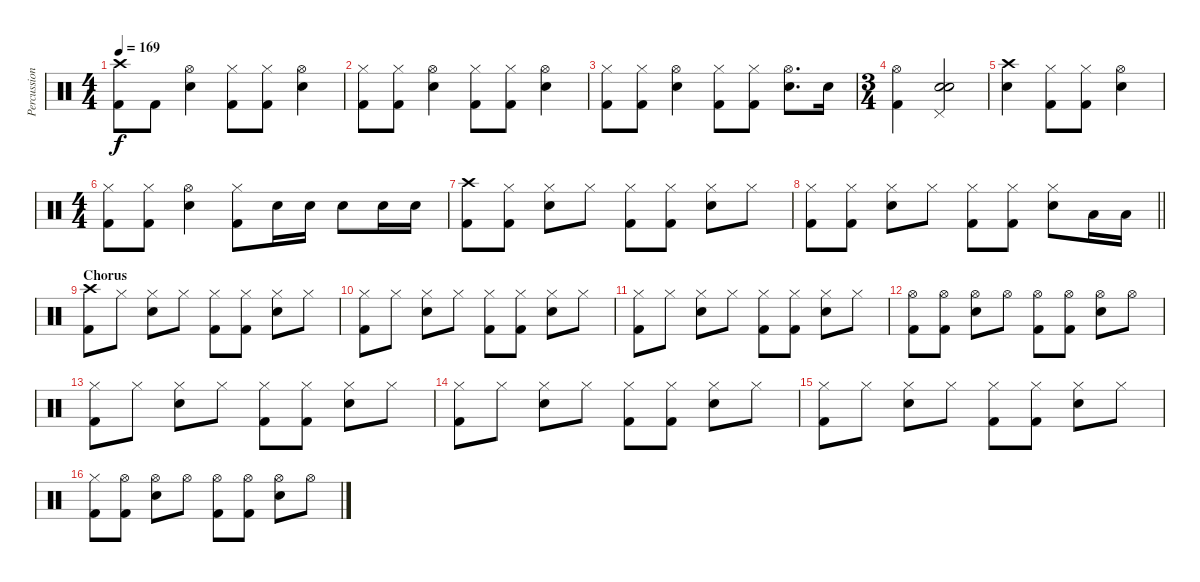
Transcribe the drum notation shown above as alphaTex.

\track ("Percussion" "Percussion") {instrument percussion}
\staff {score}
\articulation defaults
\ts (4 4)
\tempo 169
\clef neutral
\ks c
("Crash high (hit)" "Kick (hit) 2").8{dy f} "Kick (hit) 2".8 ("Hi-Hat (open)" "Electric Snare (hit)").4 ("Hi-Hat (closed)" "Kick (hit) 2").8 ("Hi-Hat (closed)" "Kick (hit) 2").8 ("Hi-Hat (open)" "Electric Snare (hit)").4 |
("Hi-Hat (closed)" "Kick (hit) 2").8 ("Hi-Hat (closed)" "Kick (hit) 2").8 ("Hi-Hat (open)" "Electric Snare (hit)").4 ("Hi-Hat (closed)" "Kick (hit) 2").8 ("Hi-Hat (closed)" "Kick (hit) 2").8 ("Hi-Hat (open)" "Electric Snare (hit)").4 |
("Hi-Hat (closed)" "Kick (hit) 2").8 ("Hi-Hat (closed)" "Kick (hit) 2").8 ("Hi-Hat (open)" "Electric Snare (hit)").4 ("Hi-Hat (closed)" "Kick (hit) 2").8 ("Hi-Hat (closed)" "Kick (hit) 2").8 ("Hi-Hat (open)" "Electric Snare (hit)").8{d} "Electric Snare (hit)".16 |
\ts (3 4)
("Hi-Hat (open)" "Kick (hit) 2").4 ("Pedal Hi-Hat (hit)" "Electric Snare (hit)" "Electric Snare (hit)").2 |
("Crash high (hit)" "Electric Snare (hit)").4 ("Hi-Hat (closed)" "Kick (hit) 2").8 ("Hi-Hat (closed)" "Kick (hit) 2").8 ("Hi-Hat (open)" "Electric Snare (hit)").4 |
\ts (4 4)
("Hi-Hat (closed)" "Kick (hit) 2").8 ("Hi-Hat (closed)" "Kick (hit) 2").8 ("Hi-Hat (open)" "Electric Snare (hit)").4 ("Hi-Hat (closed)" "Kick (hit) 2").8 "Electric Snare (hit)".16 "Electric Snare (hit)".16 "Electric Snare (hit)".8 "Electric Snare (hit)".16 "Electric Snare (hit)".16 |
("Crash high (hit)" "Kick (hit) 2").8 ("Hi-Hat (closed)" "Kick (hit) 2").8 ("Hi-Hat (closed)" "Electric Snare (hit)").8 "Hi-Hat (closed)".8 ("Hi-Hat (closed)" "Kick (hit) 2").8 ("Hi-Hat (closed)" "Kick (hit) 2").8 ("Hi-Hat (closed)" "Electric Snare (hit)").8 "Hi-Hat (closed)".8 |
\barLineRight lightlight
("Hi-Hat (closed)" "Kick (hit) 2").8 ("Hi-Hat (closed)" "Kick (hit) 2").8 ("Hi-Hat (closed)" "Electric Snare (hit)").8 "Hi-Hat (closed)".8 ("Hi-Hat (closed)" "Kick (hit) 2").8 ("Hi-Hat (closed)" "Kick (hit) 2").8 ("Hi-Hat (closed)" "Electric Snare (hit)").8 "Low Floor Tom (hit)".16 "Low Floor Tom (hit)".16 |
\section ("" "Chorus")
("Crash high (hit)" "Kick (hit) 2").8 "Hi-Hat (closed)".8 ("Hi-Hat (closed)" "Electric Snare (hit)").8 "Hi-Hat (closed)".8 ("Hi-Hat (closed)" "Kick (hit) 2").8 ("Hi-Hat (closed)" "Kick (hit) 2").8 ("Hi-Hat (closed)" "Electric Snare (hit)").8 "Hi-Hat (closed)".8 |
("Hi-Hat (closed)" "Kick (hit) 2").8 "Hi-Hat (closed)".8 ("Hi-Hat (closed)" "Electric Snare (hit)").8 "Hi-Hat (closed)".8 ("Hi-Hat (closed)" "Kick (hit) 2").8 ("Hi-Hat (closed)" "Kick (hit) 2").8 ("Hi-Hat (closed)" "Electric Snare (hit)").8 "Hi-Hat (closed)".8 |
("Hi-Hat (closed)" "Kick (hit) 2").8 "Hi-Hat (closed)".8 ("Hi-Hat (closed)" "Electric Snare (hit)").8 "Hi-Hat (closed)".8 ("Hi-Hat (closed)" "Kick (hit) 2").8 ("Hi-Hat (closed)" "Kick (hit) 2").8 ("Hi-Hat (closed)" "Electric Snare (hit)").8 "Hi-Hat (closed)".8 |
("Hi-Hat (open)" "Kick (hit) 2").8 ("Hi-Hat (open)" "Kick (hit) 2").8 ("Hi-Hat (open)" "Electric Snare (hit)").8 "Hi-Hat (open)".8 ("Hi-Hat (open)" "Kick (hit) 2").8 ("Hi-Hat (open)" "Kick (hit) 2").8 ("Hi-Hat (open)" "Electric Snare (hit)").8 "Hi-Hat (open)".8 |
("Hi-Hat (closed)" "Kick (hit) 2").8 "Hi-Hat (closed)".8 ("Hi-Hat (closed)" "Electric Snare (hit)").8 "Hi-Hat (closed)".8 ("Hi-Hat (closed)" "Kick (hit) 2").8 ("Hi-Hat (closed)" "Kick (hit) 2").8 ("Hi-Hat (closed)" "Electric Snare (hit)").8 "Hi-Hat (closed)".8 |
("Hi-Hat (closed)" "Kick (hit) 2").8 "Hi-Hat (closed)".8 ("Hi-Hat (closed)" "Electric Snare (hit)").8 "Hi-Hat (closed)".8 ("Hi-Hat (closed)" "Kick (hit) 2").8 ("Hi-Hat (closed)" "Kick (hit) 2").8 ("Hi-Hat (closed)" "Electric Snare (hit)").8 "Hi-Hat (closed)".8 |
("Hi-Hat (closed)" "Kick (hit) 2").8 "Hi-Hat (closed)".8 ("Hi-Hat (closed)" "Electric Snare (hit)").8 "Hi-Hat (closed)".8 ("Hi-Hat (closed)" "Kick (hit) 2").8 ("Hi-Hat (closed)" "Kick (hit) 2").8 ("Hi-Hat (closed)" "Electric Snare (hit)").8 "Hi-Hat (closed)".8 |
("Hi-Hat (closed)" "Kick (hit) 2").8 ("Hi-Hat (open)" "Kick (hit) 2").8 ("Hi-Hat (open)" "Electric Snare (hit)").8 "Hi-Hat (open)".8 ("Hi-Hat (open)" "Kick (hit) 2").8 ("Hi-Hat (open)" "Kick (hit) 2").8 ("Hi-Hat (open)" "Electric Snare (hit)").8 "Hi-Hat (open)".8
